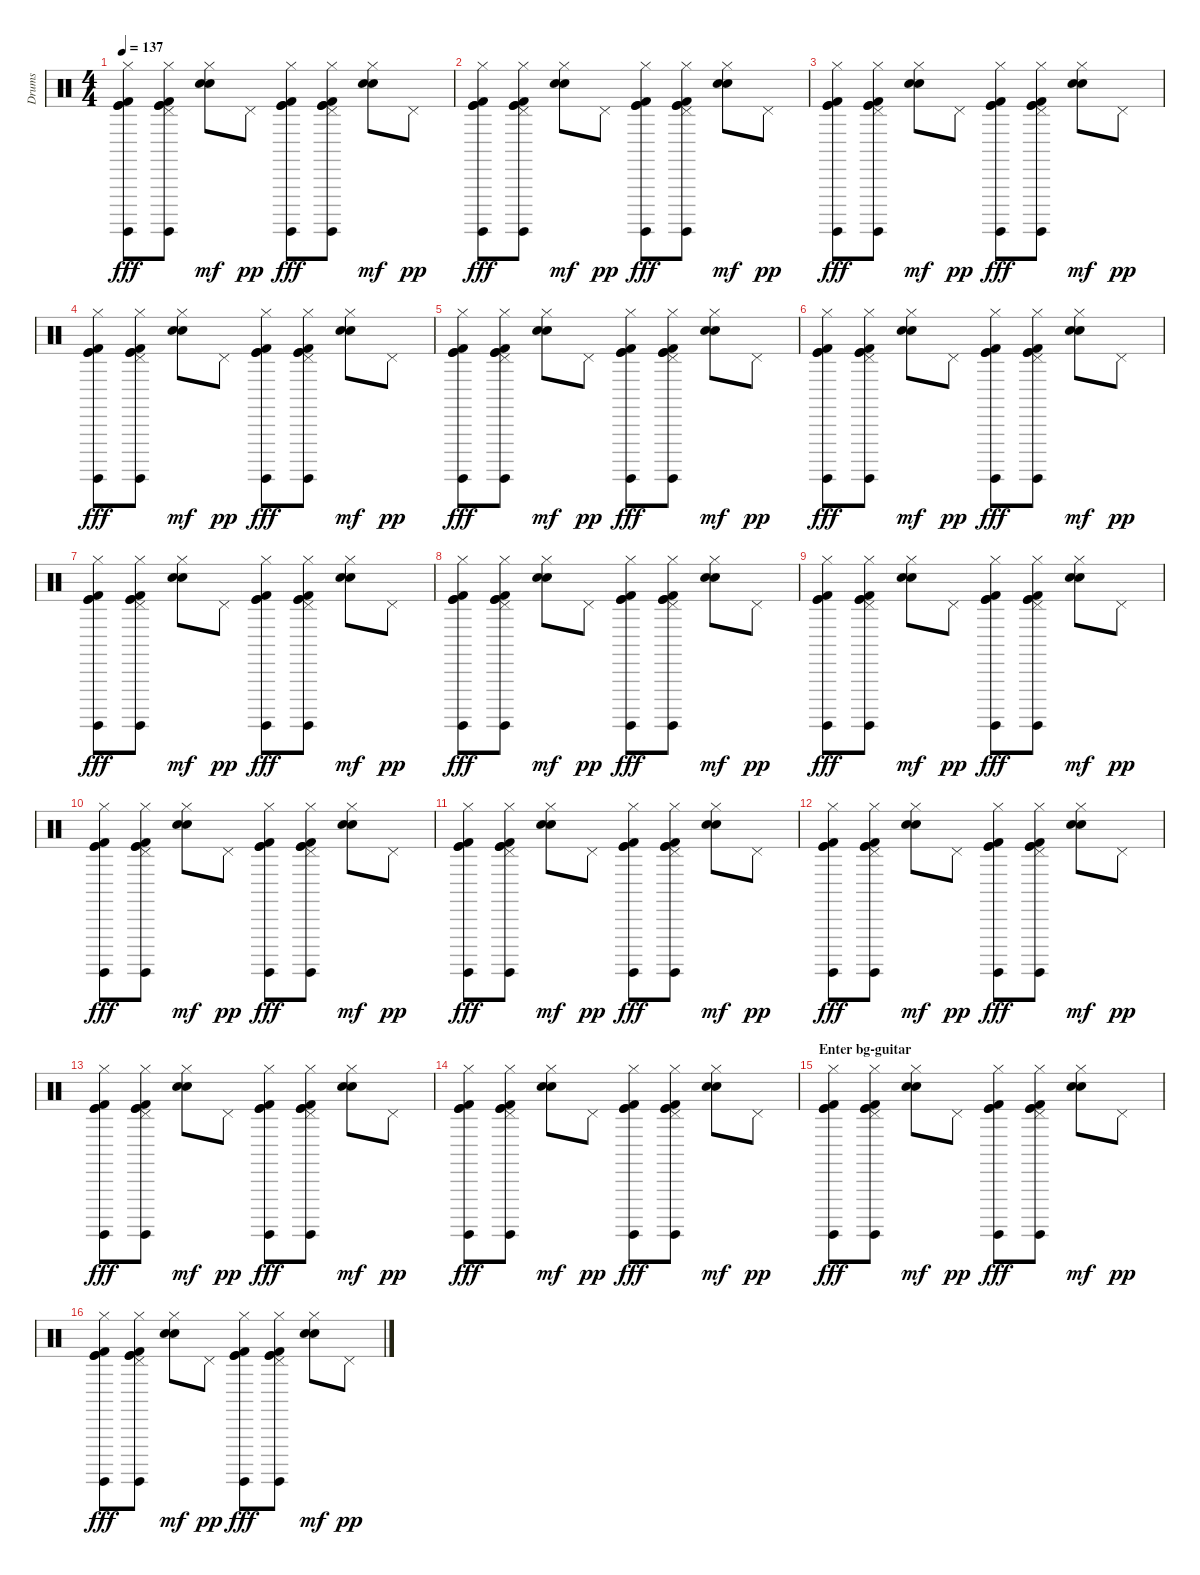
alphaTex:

\track ("Drums" "Drums") {instrument percussion}
\staff {score}
\articulation defaults
\ts (4 4)
\tempo 137
\clef neutral
\ks c
("Hi-Hat (closed)" "Kick (hit)" "Surdo (hit)" "Kick (hit) 2" "Kick (hit)").8{dy fff} ("Pedal Hi-Hat (hit)" "Hi-Hat (closed)" "Kick (hit)" "Surdo (hit)" "Kick (hit) 2" "Kick (hit)").8 ("Hi-Hat (closed)" "Hand Clap (hit)" "Snare (hit) 2").8{dy mf} "Pedal Hi-Hat (hit)".8{dy pp} ("Hi-Hat (closed)" "Kick (hit)" "Surdo (hit)" "Kick (hit) 2" "Kick (hit)").8{dy fff} ("Pedal Hi-Hat (hit)" "Hi-Hat (closed)" "Kick (hit)" "Surdo (hit)" "Kick (hit) 2" "Kick (hit)").8 ("Hi-Hat (closed)" "Hand Clap (hit)" "Snare (hit) 2").8{dy mf} "Pedal Hi-Hat (hit)".8{dy pp} |
("Hi-Hat (closed)" "Kick (hit)" "Surdo (hit)" "Kick (hit) 2" "Kick (hit)").8{dy fff} ("Pedal Hi-Hat (hit)" "Hi-Hat (closed)" "Kick (hit)" "Surdo (hit)" "Kick (hit) 2" "Kick (hit)").8 ("Hi-Hat (closed)" "Hand Clap (hit)" "Snare (hit) 2").8{dy mf} "Pedal Hi-Hat (hit)".8{dy pp} ("Hi-Hat (closed)" "Kick (hit)" "Surdo (hit)" "Kick (hit) 2" "Kick (hit)").8{dy fff} ("Pedal Hi-Hat (hit)" "Hi-Hat (closed)" "Kick (hit)" "Surdo (hit)" "Kick (hit) 2" "Kick (hit)").8 ("Hi-Hat (closed)" "Hand Clap (hit)" "Snare (hit) 2").8{dy mf} "Pedal Hi-Hat (hit)".8{dy pp} |
("Hi-Hat (closed)" "Kick (hit)" "Surdo (hit)" "Kick (hit) 2" "Kick (hit)").8{dy fff} ("Pedal Hi-Hat (hit)" "Hi-Hat (closed)" "Kick (hit)" "Surdo (hit)" "Kick (hit) 2" "Kick (hit)").8 ("Hi-Hat (closed)" "Hand Clap (hit)" "Snare (hit) 2").8{dy mf} "Pedal Hi-Hat (hit)".8{dy pp} ("Hi-Hat (closed)" "Kick (hit)" "Surdo (hit)" "Kick (hit) 2" "Kick (hit)").8{dy fff} ("Pedal Hi-Hat (hit)" "Hi-Hat (closed)" "Kick (hit)" "Surdo (hit)" "Kick (hit) 2" "Kick (hit)").8 ("Hi-Hat (closed)" "Hand Clap (hit)" "Snare (hit) 2").8{dy mf} "Pedal Hi-Hat (hit)".8{dy pp} |
("Hi-Hat (closed)" "Kick (hit)" "Surdo (hit)" "Kick (hit) 2" "Kick (hit)").8{dy fff} ("Pedal Hi-Hat (hit)" "Hi-Hat (closed)" "Kick (hit)" "Surdo (hit)" "Kick (hit) 2" "Kick (hit)").8 ("Hi-Hat (closed)" "Hand Clap (hit)" "Snare (hit) 2").8{dy mf} "Pedal Hi-Hat (hit)".8{dy pp} ("Hi-Hat (closed)" "Kick (hit)" "Surdo (hit)" "Kick (hit) 2" "Kick (hit)").8{dy fff} ("Pedal Hi-Hat (hit)" "Hi-Hat (closed)" "Kick (hit)" "Surdo (hit)" "Kick (hit) 2" "Kick (hit)").8 ("Hi-Hat (closed)" "Hand Clap (hit)" "Snare (hit) 2").8{dy mf} "Pedal Hi-Hat (hit)".8{dy pp} |
("Hi-Hat (closed)" "Kick (hit)" "Surdo (hit)" "Kick (hit) 2" "Kick (hit)").8{dy fff} ("Pedal Hi-Hat (hit)" "Hi-Hat (closed)" "Kick (hit)" "Surdo (hit)" "Kick (hit) 2" "Kick (hit)").8 ("Hi-Hat (closed)" "Hand Clap (hit)" "Snare (hit) 2").8{dy mf} "Pedal Hi-Hat (hit)".8{dy pp} ("Hi-Hat (closed)" "Kick (hit)" "Surdo (hit)" "Kick (hit) 2" "Kick (hit)").8{dy fff} ("Pedal Hi-Hat (hit)" "Hi-Hat (closed)" "Kick (hit)" "Surdo (hit)" "Kick (hit) 2" "Kick (hit)").8 ("Hi-Hat (closed)" "Hand Clap (hit)" "Snare (hit) 2").8{dy mf} "Pedal Hi-Hat (hit)".8{dy pp} |
("Hi-Hat (closed)" "Kick (hit)" "Surdo (hit)" "Kick (hit) 2" "Kick (hit)").8{dy fff} ("Pedal Hi-Hat (hit)" "Hi-Hat (closed)" "Kick (hit)" "Surdo (hit)" "Kick (hit) 2" "Kick (hit)").8 ("Hi-Hat (closed)" "Hand Clap (hit)" "Snare (hit) 2").8{dy mf} "Pedal Hi-Hat (hit)".8{dy pp} ("Hi-Hat (closed)" "Kick (hit)" "Surdo (hit)" "Kick (hit) 2" "Kick (hit)").8{dy fff} ("Pedal Hi-Hat (hit)" "Hi-Hat (closed)" "Kick (hit)" "Surdo (hit)" "Kick (hit) 2" "Kick (hit)").8 ("Hi-Hat (closed)" "Hand Clap (hit)" "Snare (hit) 2").8{dy mf} "Pedal Hi-Hat (hit)".8{dy pp} |
("Hi-Hat (closed)" "Kick (hit)" "Surdo (hit)" "Kick (hit) 2" "Kick (hit)").8{dy fff} ("Pedal Hi-Hat (hit)" "Hi-Hat (closed)" "Kick (hit)" "Surdo (hit)" "Kick (hit) 2" "Kick (hit)").8 ("Hi-Hat (closed)" "Hand Clap (hit)" "Snare (hit) 2").8{dy mf} "Pedal Hi-Hat (hit)".8{dy pp} ("Hi-Hat (closed)" "Kick (hit)" "Surdo (hit)" "Kick (hit) 2" "Kick (hit)").8{dy fff} ("Pedal Hi-Hat (hit)" "Hi-Hat (closed)" "Kick (hit)" "Surdo (hit)" "Kick (hit) 2" "Kick (hit)").8 ("Hi-Hat (closed)" "Hand Clap (hit)" "Snare (hit) 2").8{dy mf} "Pedal Hi-Hat (hit)".8{dy pp} |
("Hi-Hat (closed)" "Kick (hit)" "Surdo (hit)" "Kick (hit) 2" "Kick (hit)").8{dy fff} ("Pedal Hi-Hat (hit)" "Hi-Hat (closed)" "Kick (hit)" "Surdo (hit)" "Kick (hit) 2" "Kick (hit)").8 ("Hi-Hat (closed)" "Hand Clap (hit)" "Snare (hit) 2").8{dy mf} "Pedal Hi-Hat (hit)".8{dy pp} ("Hi-Hat (closed)" "Kick (hit)" "Surdo (hit)" "Kick (hit) 2" "Kick (hit)").8{dy fff} ("Pedal Hi-Hat (hit)" "Hi-Hat (closed)" "Kick (hit)" "Surdo (hit)" "Kick (hit) 2" "Kick (hit)").8 ("Hi-Hat (closed)" "Hand Clap (hit)" "Snare (hit) 2").8{dy mf} "Pedal Hi-Hat (hit)".8{dy pp} |
("Hi-Hat (closed)" "Kick (hit)" "Surdo (hit)" "Kick (hit) 2" "Kick (hit)").8{dy fff} ("Pedal Hi-Hat (hit)" "Hi-Hat (closed)" "Kick (hit)" "Surdo (hit)" "Kick (hit) 2" "Kick (hit)").8 ("Hi-Hat (closed)" "Hand Clap (hit)" "Snare (hit) 2").8{dy mf} "Pedal Hi-Hat (hit)".8{dy pp} ("Hi-Hat (closed)" "Kick (hit)" "Surdo (hit)" "Kick (hit) 2" "Kick (hit)").8{dy fff} ("Pedal Hi-Hat (hit)" "Hi-Hat (closed)" "Kick (hit)" "Surdo (hit)" "Kick (hit) 2" "Kick (hit)").8 ("Hi-Hat (closed)" "Hand Clap (hit)" "Snare (hit) 2").8{dy mf} "Pedal Hi-Hat (hit)".8{dy pp} |
("Hi-Hat (closed)" "Kick (hit)" "Surdo (hit)" "Kick (hit) 2" "Kick (hit)").8{dy fff} ("Pedal Hi-Hat (hit)" "Hi-Hat (closed)" "Kick (hit)" "Surdo (hit)" "Kick (hit) 2" "Kick (hit)").8 ("Hi-Hat (closed)" "Hand Clap (hit)" "Snare (hit) 2").8{dy mf} "Pedal Hi-Hat (hit)".8{dy pp} ("Hi-Hat (closed)" "Kick (hit)" "Surdo (hit)" "Kick (hit) 2" "Kick (hit)").8{dy fff} ("Pedal Hi-Hat (hit)" "Hi-Hat (closed)" "Kick (hit)" "Surdo (hit)" "Kick (hit) 2" "Kick (hit)").8 ("Hi-Hat (closed)" "Hand Clap (hit)" "Snare (hit) 2").8{dy mf} "Pedal Hi-Hat (hit)".8{dy pp} |
("Hi-Hat (closed)" "Kick (hit)" "Surdo (hit)" "Kick (hit) 2" "Kick (hit)").8{dy fff} ("Pedal Hi-Hat (hit)" "Hi-Hat (closed)" "Kick (hit)" "Surdo (hit)" "Kick (hit) 2" "Kick (hit)").8 ("Hi-Hat (closed)" "Hand Clap (hit)" "Snare (hit) 2").8{dy mf} "Pedal Hi-Hat (hit)".8{dy pp} ("Hi-Hat (closed)" "Kick (hit)" "Surdo (hit)" "Kick (hit) 2" "Kick (hit)").8{dy fff} ("Pedal Hi-Hat (hit)" "Hi-Hat (closed)" "Kick (hit)" "Surdo (hit)" "Kick (hit) 2" "Kick (hit)").8 ("Hi-Hat (closed)" "Hand Clap (hit)" "Snare (hit) 2").8{dy mf} "Pedal Hi-Hat (hit)".8{dy pp} |
("Hi-Hat (closed)" "Kick (hit)" "Surdo (hit)" "Kick (hit) 2" "Kick (hit)").8{dy fff} ("Pedal Hi-Hat (hit)" "Hi-Hat (closed)" "Kick (hit)" "Surdo (hit)" "Kick (hit) 2" "Kick (hit)").8 ("Hi-Hat (closed)" "Hand Clap (hit)" "Snare (hit) 2").8{dy mf} "Pedal Hi-Hat (hit)".8{dy pp} ("Hi-Hat (closed)" "Kick (hit)" "Surdo (hit)" "Kick (hit) 2" "Kick (hit)").8{dy fff} ("Pedal Hi-Hat (hit)" "Hi-Hat (closed)" "Kick (hit)" "Surdo (hit)" "Kick (hit) 2" "Kick (hit)").8 ("Hi-Hat (closed)" "Hand Clap (hit)" "Snare (hit) 2").8{dy mf} "Pedal Hi-Hat (hit)".8{dy pp} |
("Hi-Hat (closed)" "Kick (hit)" "Surdo (hit)" "Kick (hit) 2" "Kick (hit)").8{dy fff} ("Pedal Hi-Hat (hit)" "Hi-Hat (closed)" "Kick (hit)" "Surdo (hit)" "Kick (hit) 2" "Kick (hit)").8 ("Hi-Hat (closed)" "Hand Clap (hit)" "Snare (hit) 2").8{dy mf} "Pedal Hi-Hat (hit)".8{dy pp} ("Hi-Hat (closed)" "Kick (hit)" "Surdo (hit)" "Kick (hit) 2" "Kick (hit)").8{dy fff} ("Pedal Hi-Hat (hit)" "Hi-Hat (closed)" "Kick (hit)" "Surdo (hit)" "Kick (hit) 2" "Kick (hit)").8 ("Hi-Hat (closed)" "Hand Clap (hit)" "Snare (hit) 2").8{dy mf} "Pedal Hi-Hat (hit)".8{dy pp} |
("Hi-Hat (closed)" "Kick (hit)" "Surdo (hit)" "Kick (hit) 2" "Kick (hit)").8{dy fff} ("Pedal Hi-Hat (hit)" "Hi-Hat (closed)" "Kick (hit)" "Surdo (hit)" "Kick (hit) 2" "Kick (hit)").8 ("Hi-Hat (closed)" "Hand Clap (hit)" "Snare (hit) 2").8{dy mf} "Pedal Hi-Hat (hit)".8{dy pp} ("Hi-Hat (closed)" "Kick (hit)" "Surdo (hit)" "Kick (hit) 2" "Kick (hit)").8{dy fff} ("Pedal Hi-Hat (hit)" "Hi-Hat (closed)" "Kick (hit)" "Surdo (hit)" "Kick (hit) 2" "Kick (hit)").8 ("Hi-Hat (closed)" "Hand Clap (hit)" "Snare (hit) 2").8{dy mf} "Pedal Hi-Hat (hit)".8{dy pp} |
\section ("" "Enter bg-guitar")
("Hi-Hat (closed)" "Kick (hit)" "Surdo (hit)" "Kick (hit) 2" "Kick (hit)").8{dy fff} ("Pedal Hi-Hat (hit)" "Hi-Hat (closed)" "Kick (hit)" "Surdo (hit)" "Kick (hit) 2" "Kick (hit)").8 ("Hi-Hat (closed)" "Hand Clap (hit)" "Snare (hit) 2").8{dy mf} "Pedal Hi-Hat (hit)".8{dy pp} ("Hi-Hat (closed)" "Kick (hit)" "Surdo (hit)" "Kick (hit) 2" "Kick (hit)").8{dy fff} ("Pedal Hi-Hat (hit)" "Hi-Hat (closed)" "Kick (hit)" "Surdo (hit)" "Kick (hit) 2" "Kick (hit)").8 ("Hi-Hat (closed)" "Hand Clap (hit)" "Snare (hit) 2").8{dy mf} "Pedal Hi-Hat (hit)".8{dy pp} |
("Hi-Hat (closed)" "Kick (hit)" "Surdo (hit)" "Kick (hit) 2" "Kick (hit)").8{dy fff} ("Pedal Hi-Hat (hit)" "Hi-Hat (closed)" "Kick (hit)" "Surdo (hit)" "Kick (hit) 2" "Kick (hit)").8 ("Hi-Hat (closed)" "Hand Clap (hit)" "Snare (hit) 2").8{dy mf} "Pedal Hi-Hat (hit)".8{dy pp} ("Hi-Hat (closed)" "Kick (hit)" "Surdo (hit)" "Kick (hit) 2" "Kick (hit)").8{dy fff} ("Pedal Hi-Hat (hit)" "Hi-Hat (closed)" "Kick (hit)" "Surdo (hit)" "Kick (hit) 2" "Kick (hit)").8 ("Hi-Hat (closed)" "Hand Clap (hit)" "Snare (hit) 2").8{dy mf} "Pedal Hi-Hat (hit)".8{dy pp}
